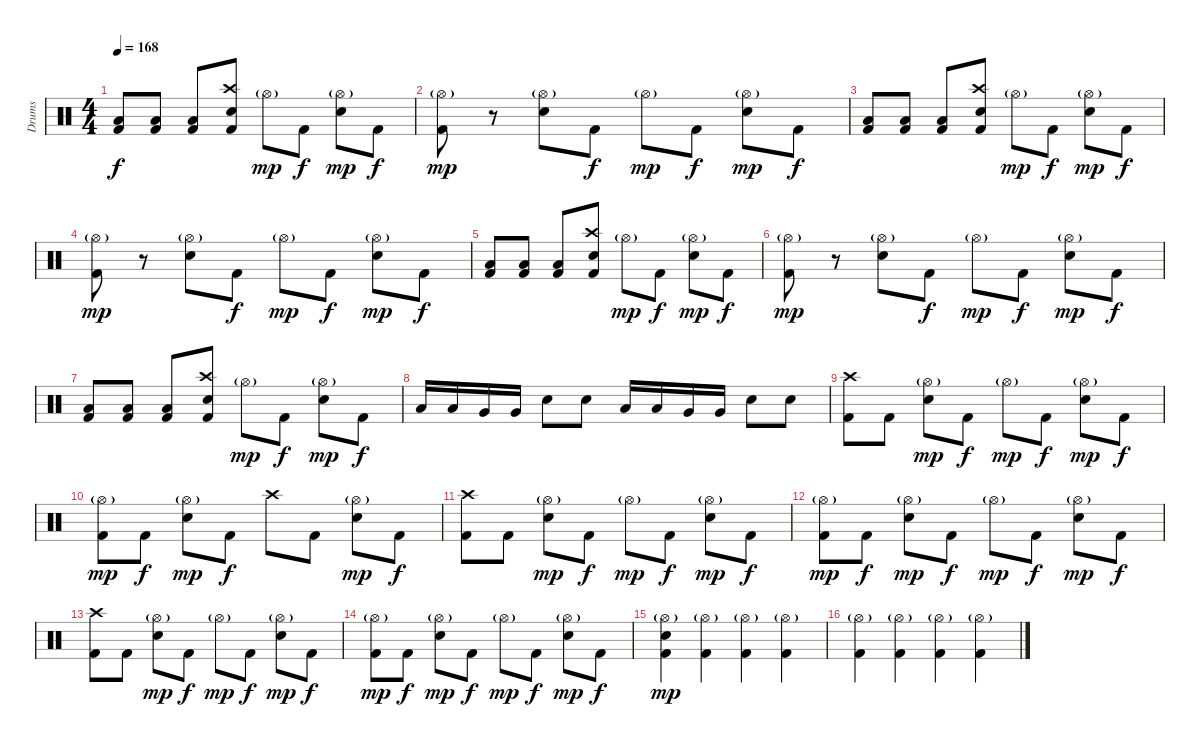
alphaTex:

\track ("Drums" "Drums") {instrument percussion}
\staff {score}
\articulation defaults
\ts (4 4)
\tempo 168
\clef neutral
\ks c
("Low Tom (hit)" "Kick (hit) 2").8{dy f} ("Low Tom (hit)" "Kick (hit) 2").8 ("Low Tom (hit)" "Kick (hit) 2").8 ("Crash high (hit)" "Snare (hit) 2" "Kick (hit) 2").8 "Hi-Hat (open)"{g}.8{dy mp} "Kick (hit) 2".8{dy f} ("Hi-Hat (open)"{g} "Snare (hit) 2").8{dy mp} "Kick (hit) 2".8{dy f} |
("Hi-Hat (open)"{g} "Kick (hit) 2").8{dy mp} r.8 ("Hi-Hat (open)"{g} "Snare (hit) 2").8 "Kick (hit) 2".8{dy f} "Hi-Hat (open)"{g}.8{dy mp} "Kick (hit) 2".8{dy f} ("Hi-Hat (open)"{g} "Snare (hit) 2").8{dy mp} "Kick (hit) 2".8{dy f} |
("Low Tom (hit)" "Kick (hit) 2").8 ("Low Tom (hit)" "Kick (hit) 2").8 ("Low Tom (hit)" "Kick (hit) 2").8 ("Crash high (hit)" "Snare (hit) 2" "Kick (hit) 2").8 "Hi-Hat (open)"{g}.8{dy mp} "Kick (hit) 2".8{dy f} ("Hi-Hat (open)"{g} "Snare (hit) 2").8{dy mp} "Kick (hit) 2".8{dy f} |
("Hi-Hat (open)"{g} "Kick (hit) 2").8{dy mp} r.8 ("Hi-Hat (open)"{g} "Snare (hit) 2").8 "Kick (hit) 2".8{dy f} "Hi-Hat (open)"{g}.8{dy mp} "Kick (hit) 2".8{dy f} ("Hi-Hat (open)"{g} "Snare (hit) 2").8{dy mp} "Kick (hit) 2".8{dy f} |
("Low Tom (hit)" "Kick (hit) 2").8 ("Low Tom (hit)" "Kick (hit) 2").8 ("Low Tom (hit)" "Kick (hit) 2").8 ("Crash high (hit)" "Snare (hit) 2" "Kick (hit) 2").8 "Hi-Hat (open)"{g}.8{dy mp} "Kick (hit) 2".8{dy f} ("Hi-Hat (open)"{g} "Snare (hit) 2").8{dy mp} "Kick (hit) 2".8{dy f} |
("Hi-Hat (open)"{g} "Kick (hit) 2").8{dy mp} r.8 ("Hi-Hat (open)"{g} "Snare (hit) 2").8 "Kick (hit) 2".8{dy f} "Hi-Hat (open)"{g}.8{dy mp} "Kick (hit) 2".8{dy f} ("Hi-Hat (open)"{g} "Snare (hit) 2").8{dy mp} "Kick (hit) 2".8{dy f} |
("Low Tom (hit)" "Kick (hit) 2").8 ("Low Tom (hit)" "Kick (hit) 2").8 ("Low Tom (hit)" "Kick (hit) 2").8 ("Crash high (hit)" "Snare (hit) 2" "Kick (hit) 2").8 "Hi-Hat (open)"{g}.8{dy mp} "Kick (hit) 2".8{dy f} ("Hi-Hat (open)"{g} "Snare (hit) 2").8{dy mp} "Kick (hit) 2".8{dy f} |
"Low Tom (hit)".16 "Low Tom (hit)".16 "Very Low Tom (hit)".16 "Very Low Tom (hit)".16 "Snare (hit) 2".8 "Snare (hit) 2".8 "Low Tom (hit)".16 "Low Tom (hit)".16 "Very Low Tom (hit)".16 "Very Low Tom (hit)".16 "Snare (hit) 2".8 "Snare (hit) 2".8 |
("Crash high (hit)" "Kick (hit) 2").8 "Kick (hit) 2".8 ("Hi-Hat (open)"{g} "Snare (hit) 2").8{dy mp} "Kick (hit) 2".8{dy f} "Hi-Hat (open)"{g}.8{dy mp} "Kick (hit) 2".8{dy f} ("Hi-Hat (open)"{g} "Snare (hit) 2").8{dy mp} "Kick (hit) 2".8{dy f} |
("Hi-Hat (open)"{g} "Kick (hit) 2").8{dy mp} "Kick (hit) 2".8{dy f} ("Hi-Hat (open)"{g} "Snare (hit) 2").8{dy mp} "Kick (hit) 2".8{dy f} "Crash high (hit)".8 "Kick (hit) 2".8 ("Hi-Hat (open)"{g} "Snare (hit) 2").8{dy mp} "Kick (hit) 2".8{dy f} |
("Crash high (hit)" "Kick (hit) 2").8 "Kick (hit) 2".8 ("Hi-Hat (open)"{g} "Snare (hit) 2").8{dy mp} "Kick (hit) 2".8{dy f} "Hi-Hat (open)"{g}.8{dy mp} "Kick (hit) 2".8{dy f} ("Hi-Hat (open)"{g} "Snare (hit) 2").8{dy mp} "Kick (hit) 2".8{dy f} |
("Hi-Hat (open)"{g} "Kick (hit) 2").8{dy mp} "Kick (hit) 2".8{dy f} ("Hi-Hat (open)"{g} "Snare (hit) 2").8{dy mp} "Kick (hit) 2".8{dy f} "Hi-Hat (open)"{g}.8{dy mp} "Kick (hit) 2".8{dy f} ("Hi-Hat (open)"{g} "Snare (hit) 2").8{dy mp} "Kick (hit) 2".8{dy f} |
("Crash high (hit)" "Kick (hit) 2").8 "Kick (hit) 2".8 ("Hi-Hat (open)"{g} "Snare (hit) 2").8{dy mp} "Kick (hit) 2".8{dy f} "Hi-Hat (open)"{g}.8{dy mp} "Kick (hit) 2".8{dy f} ("Hi-Hat (open)"{g} "Snare (hit) 2").8{dy mp} "Kick (hit) 2".8{dy f} |
("Hi-Hat (open)"{g} "Kick (hit) 2").8{dy mp} "Kick (hit) 2".8{dy f} ("Hi-Hat (open)"{g} "Snare (hit) 2").8{dy mp} "Kick (hit) 2".8{dy f} "Hi-Hat (open)"{g}.8{dy mp} "Kick (hit) 2".8{dy f} ("Hi-Hat (open)"{g} "Snare (hit) 2").8{dy mp} "Kick (hit) 2".8{dy f} |
("Hi-Hat (open)"{g} "Snare (hit) 2" "Kick (hit) 2").4{dy mp} ("Hi-Hat (open)"{g} "Kick (hit) 2").4 ("Hi-Hat (open)"{g} "Kick (hit) 2").4 ("Hi-Hat (open)"{g} "Kick (hit) 2").4 |
("Hi-Hat (open)"{g} "Kick (hit) 2").4 ("Hi-Hat (open)"{g} "Kick (hit) 2").4 ("Hi-Hat (open)"{g} "Kick (hit) 2").4 ("Hi-Hat (open)"{g} "Kick (hit) 2").4
